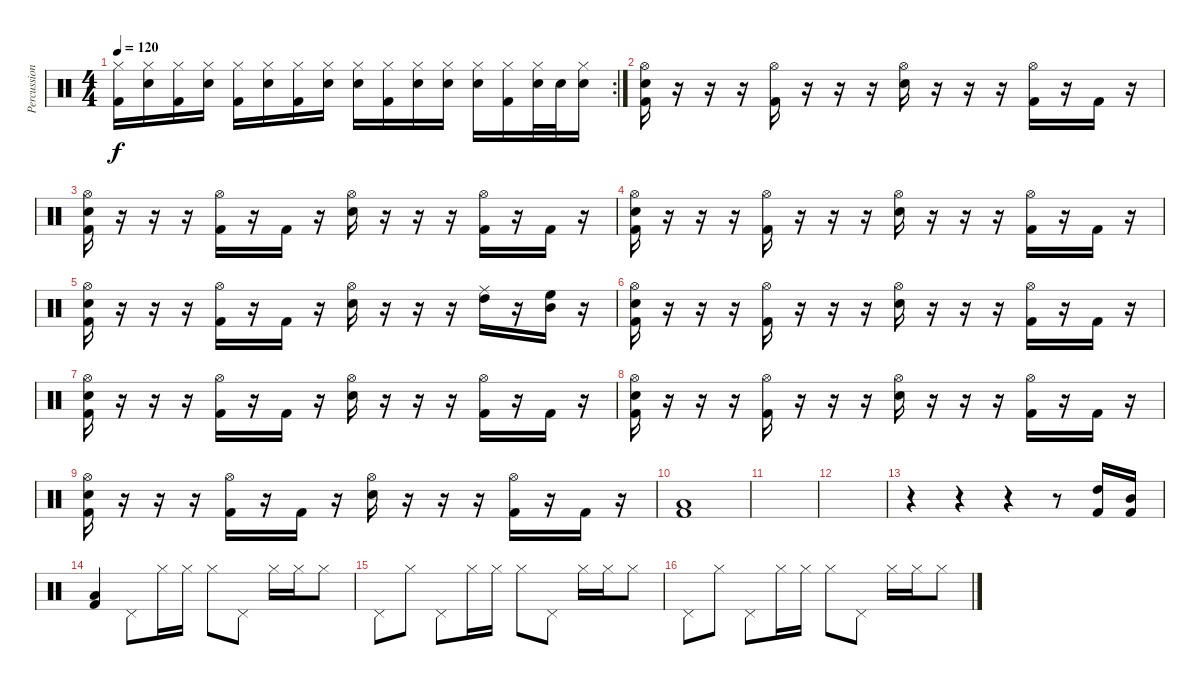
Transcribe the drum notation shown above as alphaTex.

\track ("Percussion" "Percussion") {instrument percussion}
\staff {score}
\articulation defaults
\rc 2
\ts (4 4)
\tempo 120
\clef neutral
\ks c
("Hi-Hat (closed)" "Kick (hit) 2").16{dy f} ("Hi-Hat (closed)" "Snare (hit) 2").16 ("Hi-Hat (closed)" "Kick (hit) 2").16 ("Hi-Hat (closed)" "Snare (hit) 2").16 ("Hi-Hat (closed)" "Kick (hit) 2").16 ("Hi-Hat (closed)" "Snare (hit) 2").16 ("Hi-Hat (closed)" "Kick (hit) 2").16 ("Hi-Hat (closed)" "Snare (hit) 2").16 ("Hi-Hat (closed)" "Snare (hit) 2").16 ("Hi-Hat (closed)" "Kick (hit) 2").16 ("Hi-Hat (closed)" "Snare (hit) 2").16 ("Hi-Hat (closed)" "Snare (hit) 2").16 ("Hi-Hat (closed)" "Snare (hit) 2").16 ("Hi-Hat (closed)" "Kick (hit) 2").16 ("Hi-Hat (closed)" "Snare (hit) 2").32 "Snare (hit) 2".32 ("Hi-Hat (closed)" "Snare (hit) 2").16 |
("Hi-Hat (open)" "Snare (hit) 2" "Kick (hit) 2").16 r.16 r.16 r.16 ("Hi-Hat (open)" "Kick (hit) 2").16 r.16 r.16 r.16 ("Hi-Hat (open)" "Snare (hit) 2").16 r.16 r.16 r.16 ("Hi-Hat (open)" "Kick (hit) 2").16 r.16 "Kick (hit) 2".16 r.16 |
("Hi-Hat (open)" "Snare (hit) 2" "Kick (hit) 2").16 r.16 r.16 r.16 ("Hi-Hat (open)" "Kick (hit) 2").16 r.16 "Kick (hit) 2".16 r.16 ("Hi-Hat (open)" "Snare (hit) 2").16 r.16 r.16 r.16 ("Hi-Hat (open)" "Kick (hit) 2").16 r.16 "Kick (hit) 2".16 r.16 |
("Hi-Hat (open)" "Snare (hit) 2" "Kick (hit) 2").16 r.16 r.16 r.16 ("Hi-Hat (open)" "Kick (hit) 2").16 r.16 r.16 r.16 ("Hi-Hat (open)" "Snare (hit) 2").16 r.16 r.16 r.16 ("Hi-Hat (open)" "Kick (hit) 2").16 r.16 "Kick (hit) 2".16 r.16 |
("Hi-Hat (open)" "Snare (hit) 2" "Kick (hit) 2").16 r.16 r.16 r.16 ("Hi-Hat (open)" "Kick (hit) 2").16 r.16 "Kick (hit) 2".16 r.16 ("Hi-Hat (open)" "Snare (hit) 2").16 r.16 r.16 r.16 ("High Tom (hit)" "Ride (middle)").16 r.16 ("Mid Tom (hit)" "High Floor Tom (hit)").16 r.16 |
("Hi-Hat (open)" "Snare (hit) 2" "Kick (hit) 2").16 r.16 r.16 r.16 ("Hi-Hat (open)" "Kick (hit) 2").16 r.16 r.16 r.16 ("Hi-Hat (open)" "Snare (hit) 2").16 r.16 r.16 r.16 ("Hi-Hat (open)" "Kick (hit) 2").16 r.16 "Kick (hit) 2".16 r.16 |
("Hi-Hat (open)" "Snare (hit) 2" "Kick (hit) 2").16 r.16 r.16 r.16 ("Hi-Hat (open)" "Kick (hit) 2").16 r.16 "Kick (hit) 2".16 r.16 ("Hi-Hat (open)" "Snare (hit) 2").16 r.16 r.16 r.16 ("Hi-Hat (open)" "Kick (hit) 2").16 r.16 "Kick (hit) 2".16 r.16 |
("Hi-Hat (open)" "Snare (hit) 2" "Kick (hit) 2").16 r.16 r.16 r.16 ("Hi-Hat (open)" "Kick (hit) 2").16 r.16 r.16 r.16 ("Hi-Hat (open)" "Snare (hit) 2").16 r.16 r.16 r.16 ("Hi-Hat (open)" "Kick (hit) 2").16 r.16 "Kick (hit) 2".16 r.16 |
("Hi-Hat (open)" "Snare (hit) 2" "Kick (hit) 2").16 r.16 r.16 r.16 ("Hi-Hat (open)" "Kick (hit) 2").16 r.16 "Kick (hit) 2".16 r.16 ("Hi-Hat (open)" "Snare (hit) 2").16 r.16 r.16 r.16 ("Hi-Hat (open)" "Kick (hit) 2").16 r.16 "Kick (hit) 2".16 r.16 |
("Low Tom (hit)" "Kick (hit) 2").1 |
|
|
r.4 r.4 r.4 r.8 ("High Tom (hit)" "Kick (hit) 2").16 ("Mid Tom (hit)" "Kick (hit) 2").16 |
("Low Tom (hit)" "Kick (hit) 2").4 "Pedal Hi-Hat (hit)".8 "Hi-Hat (closed)".16 "Hi-Hat (closed)".16 "Hi-Hat (closed)".8 "Pedal Hi-Hat (hit)".8 "Hi-Hat (closed)".16 "Hi-Hat (closed)".16 "Hi-Hat (closed)".8 |
"Pedal Hi-Hat (hit)".8 "Hi-Hat (closed)".8 "Pedal Hi-Hat (hit)".8 "Hi-Hat (closed)".16 "Hi-Hat (closed)".16 "Hi-Hat (closed)".8 "Pedal Hi-Hat (hit)".8 "Hi-Hat (closed)".16 "Hi-Hat (closed)".16 "Hi-Hat (closed)".8 |
"Pedal Hi-Hat (hit)".8 "Hi-Hat (closed)".8 "Pedal Hi-Hat (hit)".8 "Hi-Hat (closed)".16 "Hi-Hat (closed)".16 "Hi-Hat (closed)".8 "Pedal Hi-Hat (hit)".8 "Hi-Hat (closed)".16 "Hi-Hat (closed)".16 "Hi-Hat (closed)".8
